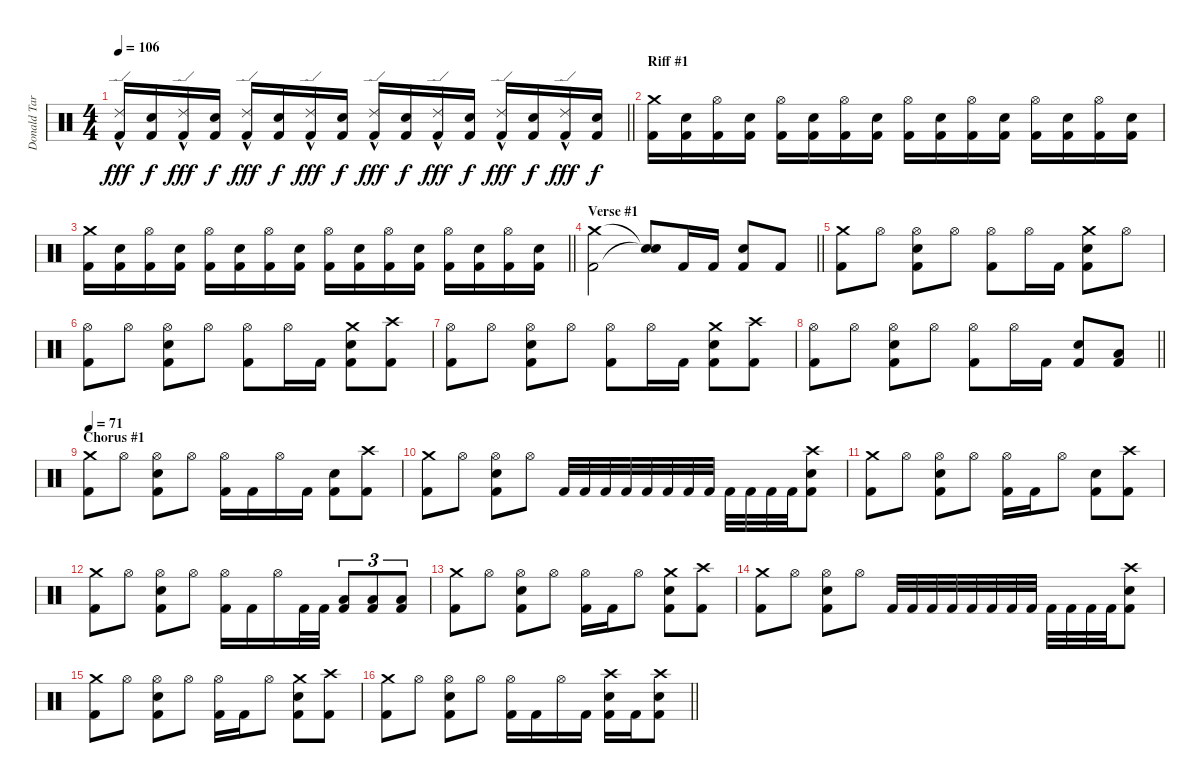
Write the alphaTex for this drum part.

\track ("Donald Tardy (Drums)" "Donald Tar") {instrument percussion}
\staff {score}
\articulation defaults
\ts (4 4)
\tempo 106
\clef neutral
\barLineRight lightlight
\ks c
("Kick (hit) 2" "Ride (edge) 2"{hac}).16{dy fff} ("Kick (hit) 2" "Snare (hit) 2").16{dy f} ("Kick (hit) 2" "Ride (edge) 2"{hac}).16{dy fff} ("Kick (hit) 2" "Snare (hit) 2").16{dy f} ("Kick (hit) 2" "Ride (edge) 2"{hac}).16{dy fff} ("Kick (hit) 2" "Snare (hit) 2").16{dy f} ("Kick (hit) 2" "Ride (edge) 2"{hac}).16{dy fff} ("Kick (hit) 2" "Snare (hit) 2").16{dy f} ("Kick (hit) 2" "Ride (edge) 2"{hac}).16{dy fff} ("Kick (hit) 2" "Snare (hit) 2").16{dy f} ("Kick (hit) 2" "Ride (edge) 2"{hac}).16{dy fff} ("Kick (hit) 2" "Snare (hit) 2").16{dy f} ("Kick (hit) 2" "Ride (edge) 2"{hac}).16{dy fff} ("Kick (hit) 2" "Snare (hit) 2").16{dy f} ("Kick (hit) 2" "Ride (edge) 2"{hac}).16{dy fff} ("Kick (hit) 2" "Snare (hit) 2").16{dy f} |
\section ("" "Riff #1")
("Kick (hit) 2" "Crash medium (hit)").16 ("Kick (hit) 2" "Snare (hit) 2").16 ("Kick (hit) 2" "Hi-Hat (open)").16 ("Kick (hit) 2" "Snare (hit) 2").16 ("Kick (hit) 2" "Hi-Hat (open)").16 ("Kick (hit) 2" "Snare (hit) 2").16 ("Kick (hit) 2" "Hi-Hat (open)").16 ("Kick (hit) 2" "Snare (hit) 2").16 ("Kick (hit) 2" "Hi-Hat (open)").16 ("Kick (hit) 2" "Snare (hit) 2").16 ("Kick (hit) 2" "Hi-Hat (open)").16 ("Kick (hit) 2" "Snare (hit) 2").16 ("Kick (hit) 2" "Hi-Hat (open)").16 ("Kick (hit) 2" "Snare (hit) 2").16 ("Kick (hit) 2" "Hi-Hat (open)").16 ("Kick (hit) 2" "Snare (hit) 2").16 |
\barLineRight lightlight
("Kick (hit) 2" "Crash medium (hit)").16 ("Kick (hit) 2" "Snare (hit) 2").16 ("Kick (hit) 2" "Hi-Hat (open)").16 ("Kick (hit) 2" "Snare (hit) 2").16 ("Kick (hit) 2" "Hi-Hat (open)").16 ("Kick (hit) 2" "Snare (hit) 2").16 ("Kick (hit) 2" "Hi-Hat (open)").16 ("Kick (hit) 2" "Snare (hit) 2").16 ("Kick (hit) 2" "Hi-Hat (open)").16 ("Kick (hit) 2" "Snare (hit) 2").16 ("Kick (hit) 2" "Hi-Hat (open)").16 ("Kick (hit) 2" "Snare (hit) 2").16 ("Kick (hit) 2" "Hi-Hat (open)").16 ("Kick (hit) 2" "Snare (hit) 2").16 ("Kick (hit) 2" "Hi-Hat (open)").16 ("Kick (hit) 2" "Snare (hit) 2").16 |
\section ("" "Verse #1")
\barLineRight lightlight
("Kick (hit) 2" "Crash medium (hit)").2 ("Snare (hit)"{t} "Snare (hit)"{t}).8 "Kick (hit) 2".16 "Kick (hit) 2".16 ("Kick (hit) 2" "Snare (hit) 2").8 "Kick (hit) 2".8 |
("Kick (hit) 2" "Crash medium (hit)").8 "Hi-Hat (open)".8 ("Kick (hit) 2" "Snare (hit) 2" "Hi-Hat (open)").8 "Hi-Hat (open)".8 ("Kick (hit) 2" "Hi-Hat (open)").8 "Hi-Hat (open)".16 "Kick (hit) 2".16 ("Kick (hit) 2" "Snare (hit) 2" "Crash medium (hit)").8 "Hi-Hat (open)".8 |
("Kick (hit) 2" "Hi-Hat (open)").8 "Hi-Hat (open)".8 ("Kick (hit) 2" "Snare (hit) 2" "Hi-Hat (open)").8 "Hi-Hat (open)".8 ("Kick (hit) 2" "Hi-Hat (open)").8 "Hi-Hat (open)".16 "Kick (hit) 2".16 ("Kick (hit) 2" "Snare (hit) 2" "Crash medium (hit)").8 ("Kick (hit) 2" "Crash high (hit)").8 |
("Kick (hit) 2" "Hi-Hat (open)").8 "Hi-Hat (open)".8 ("Kick (hit) 2" "Snare (hit) 2" "Hi-Hat (open)").8 "Hi-Hat (open)".8 ("Kick (hit) 2" "Hi-Hat (open)").8 "Hi-Hat (open)".16 "Kick (hit) 2".16 ("Kick (hit) 2" "Snare (hit) 2" "Crash medium (hit)").8 ("Kick (hit) 2" "Crash high (hit)").8 |
\barLineRight lightlight
("Kick (hit) 2" "Hi-Hat (open)").8 "Hi-Hat (open)".8 ("Kick (hit) 2" "Snare (hit) 2" "Hi-Hat (open)").8 "Hi-Hat (open)".8 ("Kick (hit) 2" "Hi-Hat (open)").8 "Hi-Hat (open)".16 "Kick (hit) 2".16 ("Kick (hit) 2" "Snare (hit) 2").8 ("Kick (hit) 2" "Low Floor Tom (hit)").8 |
\section ("" "Chorus #1")
\tempo 71
("Kick (hit) 2" "Crash medium (hit)").8 "Hi-Hat (open)".8 ("Kick (hit) 2" "Snare (hit) 2" "Hi-Hat (open)").8 "Hi-Hat (open)".8 ("Kick (hit) 2" "Hi-Hat (open)").16 "Kick (hit) 2".16 "Hi-Hat (open)".16 "Kick (hit) 2".16 ("Kick (hit) 2" "Snare (hit) 2").8 ("Kick (hit) 2" "Crash high (hit)").8 |
("Kick (hit) 2" "Crash medium (hit)").8 "Hi-Hat (open)".8 ("Kick (hit) 2" "Snare (hit) 2" "Hi-Hat (open)").8 "Hi-Hat (open)".8 "Kick (hit) 2".32 "Kick (hit) 2".32 "Kick (hit) 2".32 "Kick (hit) 2".32 "Kick (hit) 2".32 "Kick (hit) 2".32 "Kick (hit) 2".32 "Kick (hit) 2".32 "Kick (hit) 2".32 "Kick (hit) 2".32 "Kick (hit) 2".32 "Kick (hit) 2".32 ("Kick (hit) 2" "Snare (hit) 2" "Crash high (hit)").8 |
("Kick (hit) 2" "Crash medium (hit)").8 "Hi-Hat (open)".8 ("Kick (hit) 2" "Snare (hit) 2" "Hi-Hat (open)").8 "Hi-Hat (open)".8 ("Kick (hit) 2" "Hi-Hat (open)").16 "Kick (hit) 2".16 "Hi-Hat (open)".8 ("Kick (hit) 2" "Snare (hit) 2").8 ("Kick (hit) 2" "Crash high (hit)").8 |
("Kick (hit) 2" "Crash medium (hit)").8 "Hi-Hat (open)".8 ("Kick (hit) 2" "Snare (hit) 2" "Hi-Hat (open)").8 "Hi-Hat (open)".8 ("Kick (hit) 2" "Hi-Hat (open)").16 "Kick (hit) 2".16 "Hi-Hat (open)".16 "Kick (hit) 2".32 "Kick (hit) 2".32 ("Kick (hit) 2" "Low Floor Tom (hit)").8{tu (3 2)} ("Kick (hit) 2" "Low Floor Tom (hit)").8{tu (3 2)} ("Kick (hit) 2" "Low Floor Tom (hit)").8{tu (3 2)} |
("Kick (hit) 2" "Crash medium (hit)").8 "Hi-Hat (open)".8 ("Kick (hit) 2" "Snare (hit) 2" "Hi-Hat (open)").8 "Hi-Hat (open)".8 ("Kick (hit) 2" "Hi-Hat (open)").16 "Kick (hit) 2".16 "Hi-Hat (open)".8 ("Kick (hit) 2" "Snare (hit) 2" "Crash medium (hit)").8 ("Kick (hit) 2" "Crash high (hit)").8 |
("Kick (hit) 2" "Crash medium (hit)").8 "Hi-Hat (open)".8 ("Kick (hit) 2" "Snare (hit) 2" "Hi-Hat (open)").8 "Hi-Hat (open)".8 "Kick (hit) 2".32 "Kick (hit) 2".32 "Kick (hit) 2".32 "Kick (hit) 2".32 "Kick (hit) 2".32 "Kick (hit) 2".32 "Kick (hit) 2".32 "Kick (hit) 2".32 "Kick (hit) 2".32 "Kick (hit) 2".32 "Kick (hit) 2".32 "Kick (hit) 2".32 ("Kick (hit) 2" "Snare (hit) 2" "Crash high (hit)").8 |
("Kick (hit) 2" "Crash medium (hit)").8 "Hi-Hat (open)".8 ("Kick (hit) 2" "Snare (hit) 2" "Hi-Hat (open)").8 "Hi-Hat (open)".8 ("Kick (hit) 2" "Hi-Hat (open)").16 "Kick (hit) 2".16 "Hi-Hat (open)".8 ("Kick (hit) 2" "Snare (hit) 2" "Crash medium (hit)").8 ("Kick (hit) 2" "Crash high (hit)").8 |
\barLineRight lightlight
("Kick (hit) 2" "Crash medium (hit)").8 "Hi-Hat (open)".8 ("Kick (hit) 2" "Snare (hit) 2" "Hi-Hat (open)").8 "Hi-Hat (open)".8 ("Kick (hit) 2" "Hi-Hat (open)").16 "Kick (hit) 2".16 "Hi-Hat (open)".16 "Kick (hit) 2".16 ("Kick (hit) 2" "Snare (hit) 2" "Crash high (hit)").16 "Kick (hit) 2".16 ("Kick (hit) 2" "Snare (hit) 2" "Crash high (hit)").8
